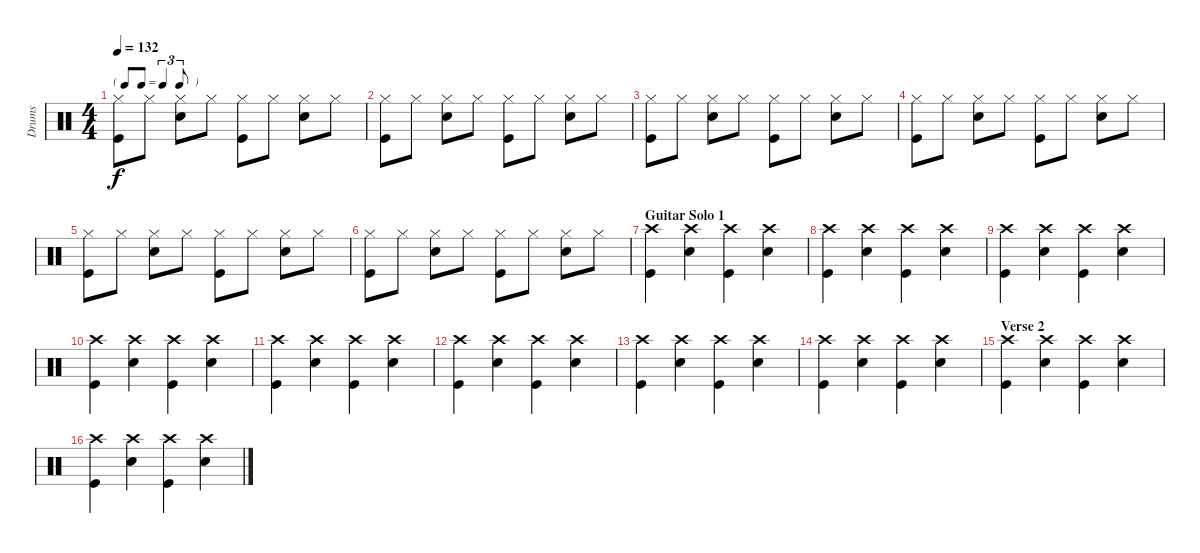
\track ("Drums" "Drums") {instrument percussion}
\staff {score}
\articulation defaults
\ts (4 4)
\tf triplet8th
\tempo 132
\clef neutral
\ks c
("Hi-Hat (closed)" "Kick (hit)").8{dy f} "Hi-Hat (closed)".8 ("Hi-Hat (closed)" "Snare (hit) 2").8 "Hi-Hat (closed)".8 ("Hi-Hat (closed)" "Kick (hit)").8 "Hi-Hat (closed)".8 ("Hi-Hat (closed)" "Snare (hit) 2").8 "Hi-Hat (closed)".8 |
("Hi-Hat (closed)" "Kick (hit)").8 "Hi-Hat (closed)".8 ("Hi-Hat (closed)" "Snare (hit) 2").8 "Hi-Hat (closed)".8 ("Hi-Hat (closed)" "Kick (hit)").8 "Hi-Hat (closed)".8 ("Hi-Hat (closed)" "Snare (hit) 2").8 "Hi-Hat (closed)".8 |
("Hi-Hat (closed)" "Kick (hit)").8 "Hi-Hat (closed)".8 ("Hi-Hat (closed)" "Snare (hit) 2").8 "Hi-Hat (closed)".8 ("Hi-Hat (closed)" "Kick (hit)").8 "Hi-Hat (closed)".8 ("Hi-Hat (closed)" "Snare (hit) 2").8 "Hi-Hat (closed)".8 |
("Hi-Hat (closed)" "Kick (hit)").8 "Hi-Hat (closed)".8 ("Hi-Hat (closed)" "Snare (hit) 2").8 "Hi-Hat (closed)".8 ("Hi-Hat (closed)" "Kick (hit)").8 "Hi-Hat (closed)".8 ("Hi-Hat (closed)" "Snare (hit) 2").8 "Hi-Hat (closed)".8 |
("Hi-Hat (closed)" "Kick (hit)").8 "Hi-Hat (closed)".8 ("Hi-Hat (closed)" "Snare (hit) 2").8 "Hi-Hat (closed)".8 ("Hi-Hat (closed)" "Kick (hit)").8 "Hi-Hat (closed)".8 ("Hi-Hat (closed)" "Snare (hit) 2").8 "Hi-Hat (closed)".8 |
("Hi-Hat (closed)" "Kick (hit)").8 "Hi-Hat (closed)".8 ("Hi-Hat (closed)" "Snare (hit) 2").8 "Hi-Hat (closed)".8 ("Hi-Hat (closed)" "Kick (hit)").8 "Hi-Hat (closed)".8 ("Hi-Hat (closed)" "Snare (hit) 2").8 "Hi-Hat (closed)".8 |
\section ("" "Guitar Solo 1")
("Crash high (hit)" "Kick (hit)").4 ("Crash high (hit)" "Snare (hit) 2").4 ("Crash high (hit)" "Kick (hit)").4 ("Crash high (hit)" "Snare (hit) 2").4 |
("Crash high (hit)" "Kick (hit)").4 ("Crash high (hit)" "Snare (hit) 2").4 ("Crash high (hit)" "Kick (hit)").4 ("Crash high (hit)" "Snare (hit) 2").4 |
("Crash high (hit)" "Kick (hit)").4 ("Crash high (hit)" "Snare (hit) 2").4 ("Crash high (hit)" "Kick (hit)").4 ("Crash high (hit)" "Snare (hit) 2").4 |
("Crash high (hit)" "Kick (hit)").4 ("Crash high (hit)" "Snare (hit) 2").4 ("Crash high (hit)" "Kick (hit)").4 ("Crash high (hit)" "Snare (hit) 2").4 |
("Crash high (hit)" "Kick (hit)").4 ("Crash high (hit)" "Snare (hit) 2").4 ("Crash high (hit)" "Kick (hit)").4 ("Crash high (hit)" "Snare (hit) 2").4 |
("Crash high (hit)" "Kick (hit)").4 ("Crash high (hit)" "Snare (hit) 2").4 ("Crash high (hit)" "Kick (hit)").4 ("Crash high (hit)" "Snare (hit) 2").4 |
("Crash high (hit)" "Kick (hit)").4 ("Crash high (hit)" "Snare (hit) 2").4 ("Crash high (hit)" "Kick (hit)").4 ("Crash high (hit)" "Snare (hit) 2").4 |
("Crash high (hit)" "Kick (hit)").4 ("Crash high (hit)" "Snare (hit) 2").4 ("Crash high (hit)" "Kick (hit)").4 ("Crash high (hit)" "Snare (hit) 2").4 |
\section ("" "Verse 2")
("Crash high (hit)" "Kick (hit)").4 ("Crash high (hit)" "Snare (hit) 2").4 ("Crash high (hit)" "Kick (hit)").4 ("Crash high (hit)" "Snare (hit) 2").4 |
("Crash high (hit)" "Kick (hit)").4 ("Crash high (hit)" "Snare (hit) 2").4 ("Crash high (hit)" "Kick (hit)").4 ("Crash high (hit)" "Snare (hit) 2").4
